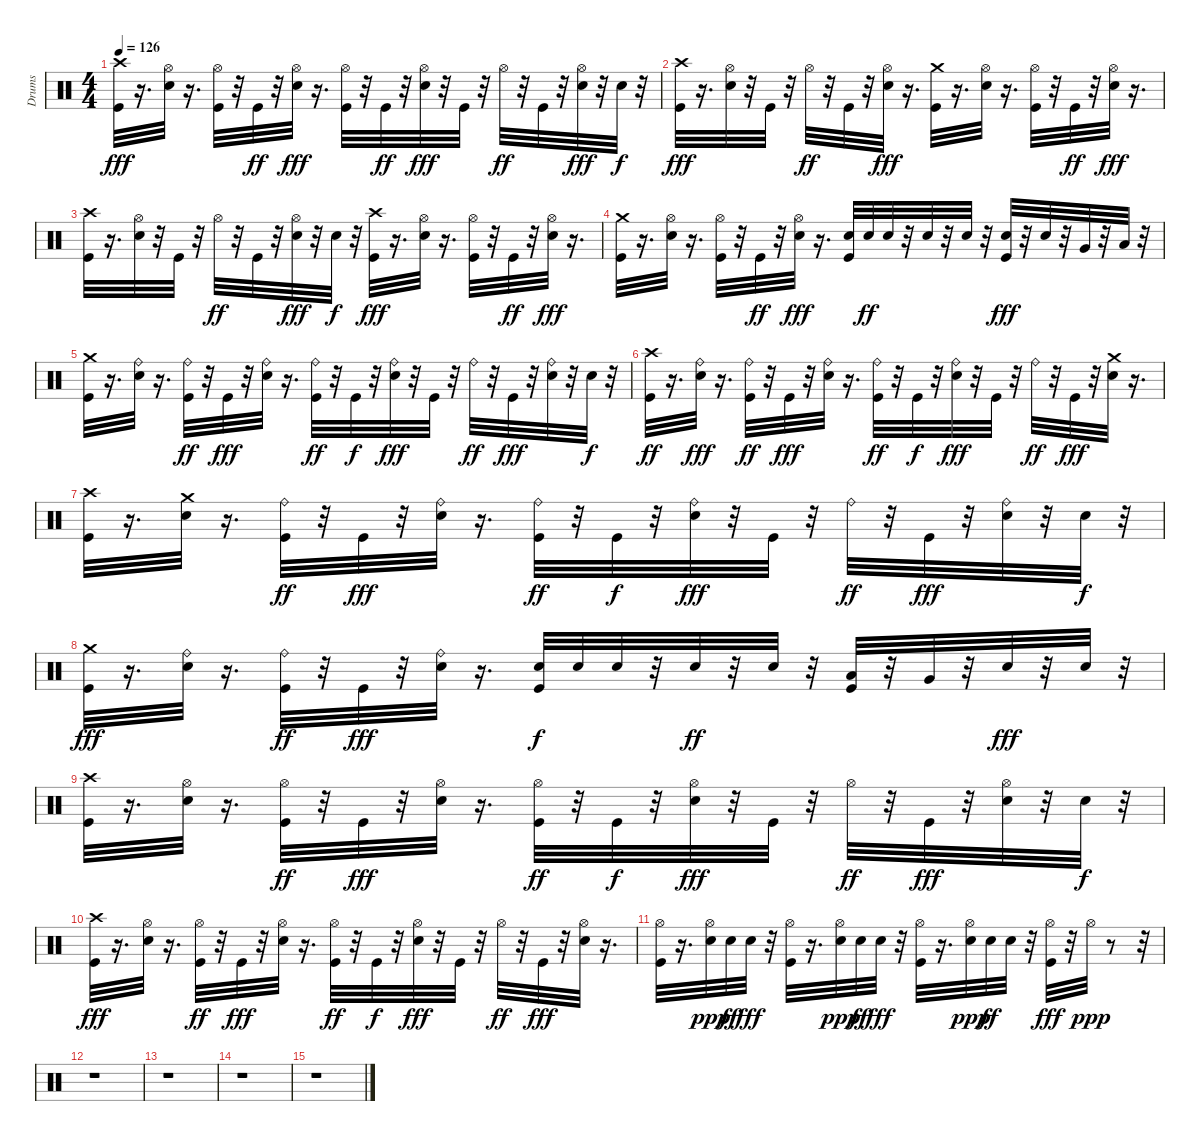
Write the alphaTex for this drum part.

\track ("Drums" "Drums") {instrument percussion}
\staff {score}
\articulation defaults
\ts (4 4)
\tempo 126
\clef neutral
\ks c
("Kick (hit)" "Crash high (hit)").32{dy fff} r.16{d} ("Hi-Hat (open)" "Electric Snare (hit)").32 r.16{d} ("Hi-Hat (open)" "Kick (hit)").32 r.32 "Kick (hit)".32{dy ff} r.32 ("Hi-Hat (open)" "Electric Snare (hit)").32{dy fff} r.16{d} ("Hi-Hat (open)" "Kick (hit)").32 r.32 "Kick (hit)".32{dy ff} r.32 ("Hi-Hat (open)" "Electric Snare (hit)").32{dy fff} r.32 "Kick (hit)".32 r.32 "Hi-Hat (open)".32{dy ff} r.32 "Kick (hit)".32 r.32 ("Hi-Hat (open)" "Electric Snare (hit)").32{dy fff} r.32 "Electric Snare (hit)".32{dy f} r.32 |
("Kick (hit)" "Crash high (hit)").32{dy fff} r.16{d} ("Hi-Hat (open)" "Electric Snare (hit)").32 r.32 "Kick (hit)".32 r.32 "Hi-Hat (open)".32{dy ff} r.32 "Kick (hit)".32 r.32 ("Hi-Hat (open)" "Electric Snare (hit)").32{dy fff} r.16{d} ("Kick (hit)" "Crash medium (hit)").32 r.16{d} ("Hi-Hat (open)" "Electric Snare (hit)").32 r.16{d} ("Hi-Hat (open)" "Kick (hit)").32 r.32 "Kick (hit)".32{dy ff} r.32 ("Hi-Hat (open)" "Electric Snare (hit)").32{dy fff} r.16{d} |
("Crash high (hit)" "Kick (hit)").32 r.16{d} ("Hi-Hat (open)" "Electric Snare (hit)").32 r.32 "Kick (hit)".32 r.32 "Hi-Hat (open)".32{dy ff} r.32 "Kick (hit)".32 r.32 ("Hi-Hat (open)" "Electric Snare (hit)").32{dy fff} r.32 "Electric Snare (hit)".32{dy f} r.32 ("Crash high (hit)" "Kick (hit)").32{dy fff} r.16{d} ("Hi-Hat (open)" "Electric Snare (hit)").32 r.16{d} ("Hi-Hat (open)" "Kick (hit)").32 r.32 "Kick (hit)".32{dy ff} r.32 ("Hi-Hat (open)" "Electric Snare (hit)").32{dy fff} r.16{d} |
("Kick (hit)" "Crash medium (hit)").32 r.16{d} ("Hi-Hat (open)" "Electric Snare (hit)").32 r.16{d} ("Hi-Hat (open)" "Kick (hit)").32 r.32 "Kick (hit)".32{dy ff} r.32 ("Hi-Hat (open)" "Electric Snare (hit)").32{dy fff} r.16{d} ("Electric Snare (hit)" "Kick (hit)").32 "Electric Snare (hit)".32{dy ff} "Electric Snare (hit)".32 r.32 "Electric Snare (hit)".32 r.32 "Electric Snare (hit)".32 r.32 ("Electric Snare (hit)" "Kick (hit)").32{dy fff} r.32 "Electric Snare (hit)".32 r.32 "Very Low Tom (hit)".32 r.32 "Low Floor Tom (hit)".32 r.32 |
("Kick (hit)" "Crash medium (hit)").32 r.16{d} ("Electric Snare (hit)" "Ride (bell)").32 r.16{d} ("Kick (hit)" "Ride (bell)").32{dy ff} r.32 "Kick (hit)".32{dy fff} r.32 ("Electric Snare (hit)" "Ride (bell)").32 r.16{d} ("Kick (hit)" "Ride (bell)").32{dy ff} r.32 "Kick (hit)".32{dy f} r.32 ("Electric Snare (hit)" "Ride (bell)").32{dy fff} r.32 "Kick (hit)".32 r.32 "Ride (bell)".32{dy ff} r.32 "Kick (hit)".32{dy fff} r.32 ("Electric Snare (hit)" "Ride (bell)").32 r.32 "Electric Snare (hit)".32{dy f} r.32 |
("Kick (hit)" "Crash high (hit)").32{dy ff} r.16{d} ("Electric Snare (hit)" "Ride (bell)").32{dy fff} r.16{d} ("Kick (hit)" "Ride (bell)").32{dy ff} r.32 "Kick (hit)".32{dy fff} r.32 ("Electric Snare (hit)" "Ride (bell)").32 r.16{d} ("Kick (hit)" "Ride (bell)").32{dy ff} r.32 "Kick (hit)".32{dy f} r.32 ("Electric Snare (hit)" "Ride (bell)").32{dy fff} r.32 "Kick (hit)".32 r.32 "Ride (bell)".32{dy ff} r.32 "Kick (hit)".32{dy fff} r.32 ("Electric Snare (hit)" "Crash medium (hit)").32 r.16{d} |
("Crash high (hit)" "Kick (hit)").32 r.16{d} ("Crash medium (hit)" "Electric Snare (hit)").32 r.16{d} ("Kick (hit)" "Ride (bell)").32{dy ff} r.32 "Kick (hit)".32{dy fff} r.32 ("Electric Snare (hit)" "Ride (bell)").32 r.16{d} ("Kick (hit)" "Ride (bell)").32{dy ff} r.32 "Kick (hit)".32{dy f} r.32 ("Electric Snare (hit)" "Ride (bell)").32{dy fff} r.32 "Kick (hit)".32 r.32 "Ride (bell)".32{dy ff} r.32 "Kick (hit)".32{dy fff} r.32 ("Electric Snare (hit)" "Ride (bell)").32 r.32 "Electric Snare (hit)".32{dy f} r.32 |
("Kick (hit)" "Crash medium (hit)").32{dy fff} r.16{d} ("Electric Snare (hit)" "Ride (bell)").32 r.16{d} ("Kick (hit)" "Ride (bell)").32{dy ff} r.32 "Kick (hit)".32{dy fff} r.32 ("Electric Snare (hit)" "Ride (bell)").32 r.16{d} ("Electric Snare (hit)" "Kick (hit)").32{dy f} "Electric Snare (hit)".32 "Electric Snare (hit)".32 r.32 "Electric Snare (hit)".32{dy ff} r.32 "Electric Snare (hit)".32 r.32 ("Kick (hit)" "Low Tom (hit)").32 r.32 "Very Low Tom (hit)".32 r.32 "Electric Snare (hit)".32{dy fff} r.32 "Electric Snare (hit)".32 r.32 |
("Crash high (hit)" "Kick (hit)").32 r.16{d} ("Electric Snare (hit)" "Hi-Hat (open)").32 r.16{d} ("Kick (hit)" "Hi-Hat (open)").32{dy ff} r.32 "Kick (hit)".32{dy fff} r.32 ("Electric Snare (hit)" "Hi-Hat (open)").32 r.16{d} ("Kick (hit)" "Hi-Hat (open)").32{dy ff} r.32 "Kick (hit)".32{dy f} r.32 ("Electric Snare (hit)" "Hi-Hat (open)").32{dy fff} r.32 "Kick (hit)".32 r.32 "Hi-Hat (open)".32{dy ff} r.32 "Kick (hit)".32{dy fff} r.32 ("Electric Snare (hit)" "Hi-Hat (open)").32 r.32 "Electric Snare (hit)".32{dy f} r.32 |
("Crash high (hit)" "Kick (hit)").32{dy fff} r.16{d} ("Electric Snare (hit)" "Hi-Hat (open)").32 r.16{d} ("Kick (hit)" "Hi-Hat (open)").32{dy ff} r.32 "Kick (hit)".32{dy fff} r.32 ("Electric Snare (hit)" "Hi-Hat (open)").32 r.16{d} ("Kick (hit)" "Hi-Hat (open)").32{dy ff} r.32 "Kick (hit)".32{dy f} r.32 ("Electric Snare (hit)" "Hi-Hat (open)").32{dy fff} r.32 "Kick (hit)".32 r.32 "Hi-Hat (open)".32{dy ff} r.32 "Kick (hit)".32{dy fff} r.32 ("Electric Snare (hit)" "Hi-Hat (open)").32 r.16{d} |
("Kick (hit)" "Hi-Hat (open)").32 r.16{d} ("Electric Snare (hit)" "Hi-Hat (open)").32{dy ppp} "Electric Snare (hit)".32{dy ff} "Electric Snare (hit)".32{dy fff} r.32 ("Kick (hit)" "Hi-Hat (open)").32 r.16{d} ("Electric Snare (hit)" "Hi-Hat (open)").32{dy ppp} "Electric Snare (hit)".32{dy ff} "Electric Snare (hit)".32{dy fff} r.32 ("Kick (hit)" "Hi-Hat (open)").32 r.16{d} ("Electric Snare (hit)" "Hi-Hat (open)").32{dy ppp} "Electric Snare (hit)".32{dy ff} "Electric Snare (hit)".32 r.32 ("Kick (hit)" "Hi-Hat (open)").32{dy fff} r.32 "Hi-Hat (open)".32{dy ppp} r.8 r.32 |
r.1 |
r.1 |
r.1 |
r.1
